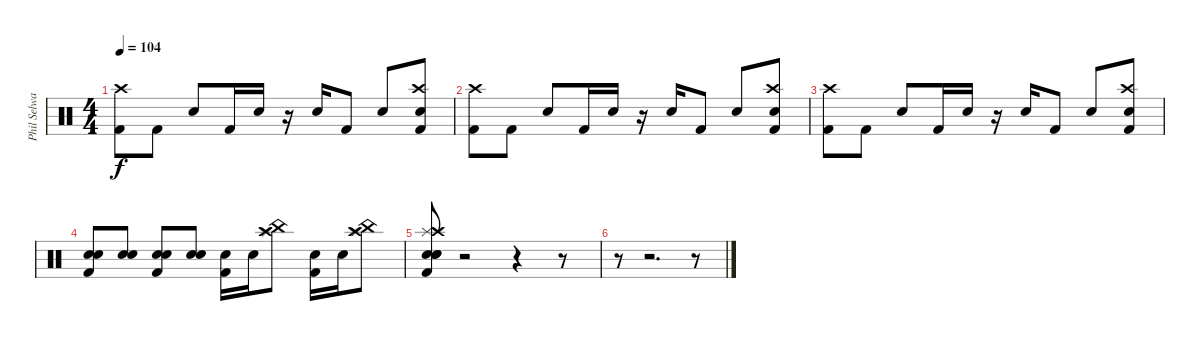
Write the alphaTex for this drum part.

\track ("Phil Selway" "Phil Selwa") {instrument percussion}
\staff {score}
\articulation defaults
\ts (4 4)
\tempo 104
\clef neutral
\ks c
("Kick (hit) 2" "Crash high (hit)").8{dy f} "Kick (hit) 2".8 "Electric Snare (hit)".8 "Kick (hit) 2".16 "Electric Snare (hit)".16 r.16 "Electric Snare (hit)".16 "Kick (hit) 2".8 "Electric Snare (hit)".8 ("Kick (hit) 2" "Crash high (hit)" "Electric Snare (hit)").8 |
("Kick (hit) 2" "Crash high (hit)").8 "Kick (hit) 2".8 "Electric Snare (hit)".8 "Kick (hit) 2".16 "Electric Snare (hit)".16 r.16 "Electric Snare (hit)".16 "Kick (hit) 2".8 "Electric Snare (hit)".8 ("Kick (hit) 2" "Crash high (hit)" "Electric Snare (hit)").8 |
("Kick (hit) 2" "Crash high (hit)").8 "Kick (hit) 2".8 "Electric Snare (hit)".8 "Kick (hit) 2".16 "Electric Snare (hit)".16 r.16 "Electric Snare (hit)".16 "Kick (hit) 2".8 "Electric Snare (hit)".8 ("Kick (hit) 2" "Crash high (hit)" "Electric Snare (hit)").8 |
("Electric Snare (hit)" "Snare (hit) 2" "Kick (hit) 2").8 ("Electric Snare (hit)" "Snare (hit) 2").8 ("Electric Snare (hit)" "Snare (hit) 2" "Kick (hit) 2").8 ("Electric Snare (hit)" "Snare (hit) 2").8 ("Electric Snare (hit)" "Kick (hit) 2").16 "Electric Snare (hit)".16 ("Splash (hit)" "China (hit)" "Crash high (hit)").8 ("Electric Snare (hit)" "Kick (hit) 2").16 "Electric Snare (hit)".16 ("Splash (hit)" "China (hit)" "Crash high (hit)").8 |
("Kick (hit) 2" "Snare (hit) 2" "Splash (hit)" "Crash high (hit)" "Electric Snare (hit)" "Hand Clap (hit)").8 r.2 r.4 r.8 |
r.8 r.2{d} r.8
